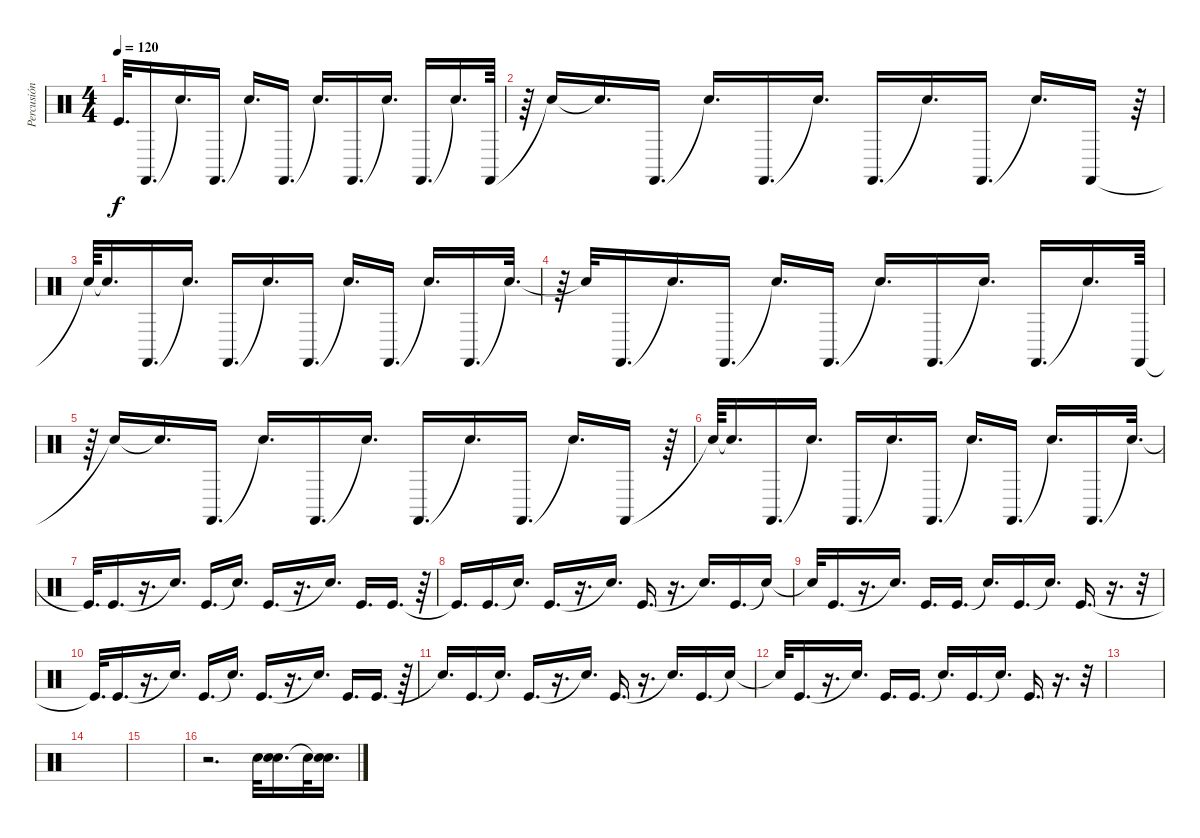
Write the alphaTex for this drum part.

\track ("Percusión" "Percusión") {instrument percussion}
\staff {score}
\articulation defaults
\ts (4 4)
\tempo 120
\clef neutral
\ks c "Kick (hit)"{t}.32{d dy f} "Castanets (hit)".16{d} "Snare (hit)"{t}.16{d} "Castanets (hit)".16{d} "Electric Snare (hit)"{t}.16{d} "Castanets (hit)".16{d} "Electric Snare (hit)"{t}.16{d} "Castanets (hit)".16{d} "Snare (hit)"{t}.16{d} "Castanets (hit)".16{d} "Snare (hit)"{t}.16{d} "Castanets (hit)".64
|
r.64 "Snare (hit)"{t}.16 "Snare (hit)"{t}.16{d} "Castanets (hit)".16{d} "Snare (hit)"{t}.16{d} "Castanets (hit)".16{d} "Electric Snare (hit)"{t}.16{d} "Castanets (hit)".16{d} "Electric Snare (hit)"{t}.16{d} "Castanets (hit)".16{d} "Snare (hit)"{t}.16{d} "Castanets (hit)".16 r.64 |
"Snare (hit)"{t}.64 "Snare (hit)"{t}.16{d} "Castanets (hit)".16{d} "Snare (hit)"{t}.16{d} "Castanets (hit)".16{d} "Electric Snare (hit)"{t}.16{d} "Castanets (hit)".16{d} "Electric Snare (hit)"{t}.16{d} "Castanets (hit)".16{d} "Electric Snare (hit)"{t}.16{d} "Castanets (hit)".16{d} "Snare (hit)"{t}.32{d} |
r.64 "Snare (hit)"{t}.32 "Castanets (hit)".16{d} "Snare (hit)"{t}.16{d} "Castanets (hit)".16{d} "Electric Snare (hit)"{t}.16{d} "Castanets (hit)".16{d} "Electric Snare (hit)"{t}.16{d} "Castanets (hit)".16{d} "Snare (hit)"{t}.16{d} "Castanets (hit)".16{d} "Snare (hit)"{t}.16{d} "Castanets (hit)".64 |
r.64 "Snare (hit)"{t}.16 "Snare (hit)"{t}.16{d} "Castanets (hit)".16{d} "Snare (hit)"{t}.16{d} "Castanets (hit)".16{d} "Electric Snare (hit)"{t}.16{d} "Castanets (hit)".16{d} "Electric Snare (hit)"{t}.16{d} "Castanets (hit)".16{d} "Snare (hit)"{t}.16{d} "Castanets (hit)".16 r.64 |
"Snare (hit)"{t}.64 "Snare (hit)"{t}.16{d} "Castanets (hit)".16{d} "Snare (hit)"{t}.16{d} "Castanets (hit)".16{d} "Electric Snare (hit)"{t}.16{d} "Castanets (hit)".16{d} "Electric Snare (hit)"{t}.16{d} "Castanets (hit)".16{d} "Electric Snare (hit)"{t}.16{d} "Castanets (hit)".16{d} "Snare (hit)"{t}.32{d} |
"Kick (hit)"{t}.32{d} "Kick (hit)".16{d} r.16{d} "Snare (hit)"{t}.16{d} "Kick (hit)".16{d} "Snare (hit)"{t}.16{d} "Kick (hit)".16{d} r.16{d} "Snare (hit)"{t}.16{d} "Kick (hit)".16{d} "Kick (hit)".16{d} r.64 |
"Kick (hit)"{t}.16{d} "Kick (hit)".16{d} "Snare (hit)"{t}.16{d} "Kick (hit)".16{d} r.16{d} "Snare (hit)"{t}.16{d} "Kick (hit)".16{d} r.16{d} "Snare (hit)"{t}.16{d} "Kick (hit)".16{d} "Snare (hit)"{t}.16 |
"Snare (hit)"{t}.32 "Kick (hit)".16{d} r.16{d} "Snare (hit)"{t}.16{d} "Kick (hit)".16{d} "Kick (hit)".16{d} "Snare (hit)"{t}.16{d} "Kick (hit)".16{d} "Snare (hit)"{t}.16{d} "Kick (hit)".16{d} r.16{d} r.32 |
"Kick (hit)"{t}.32{d} "Kick (hit)".16{d} r.16{d} "Snare (hit)"{t}.16{d} "Kick (hit)".16{d} "Snare (hit)"{t}.16{d} "Kick (hit)".16{d} r.16{d} "Snare (hit)"{t}.16{d} "Kick (hit)".16{d} "Kick (hit)".16{d} r.64 |
"Snare (hit)"{t}.16{d} "Kick (hit)".16{d} "Snare (hit)"{t}.16{d} "Kick (hit)".16{d} r.16{d} "Snare (hit)"{t}.16{d} "Kick (hit)".16{d} r.16{d} "Snare (hit)"{t}.16{d} "Kick (hit)".16{d} "Snare (hit)"{t}.16 |
"Snare (hit)"{t}.32 "Kick (hit)".16{d} r.16{d} "Snare (hit)"{t}.16{d} "Kick (hit)".16{d} "Kick (hit)".16{d} "Snare (hit)"{t}.16{d} "Kick (hit)".16{d} "Snare (hit)"{t}.16{d} "Kick (hit)".16{d} r.16{d} r.32 |
|
|
|
r.2{d} "Electric Snare (hit)".32 ("Electric Snare (hit)" "Snare (hit)").16{d} "Electric Snare (hit)".32 ("Electric Snare (hit)" "Snare (hit)"{t}).16{d}
